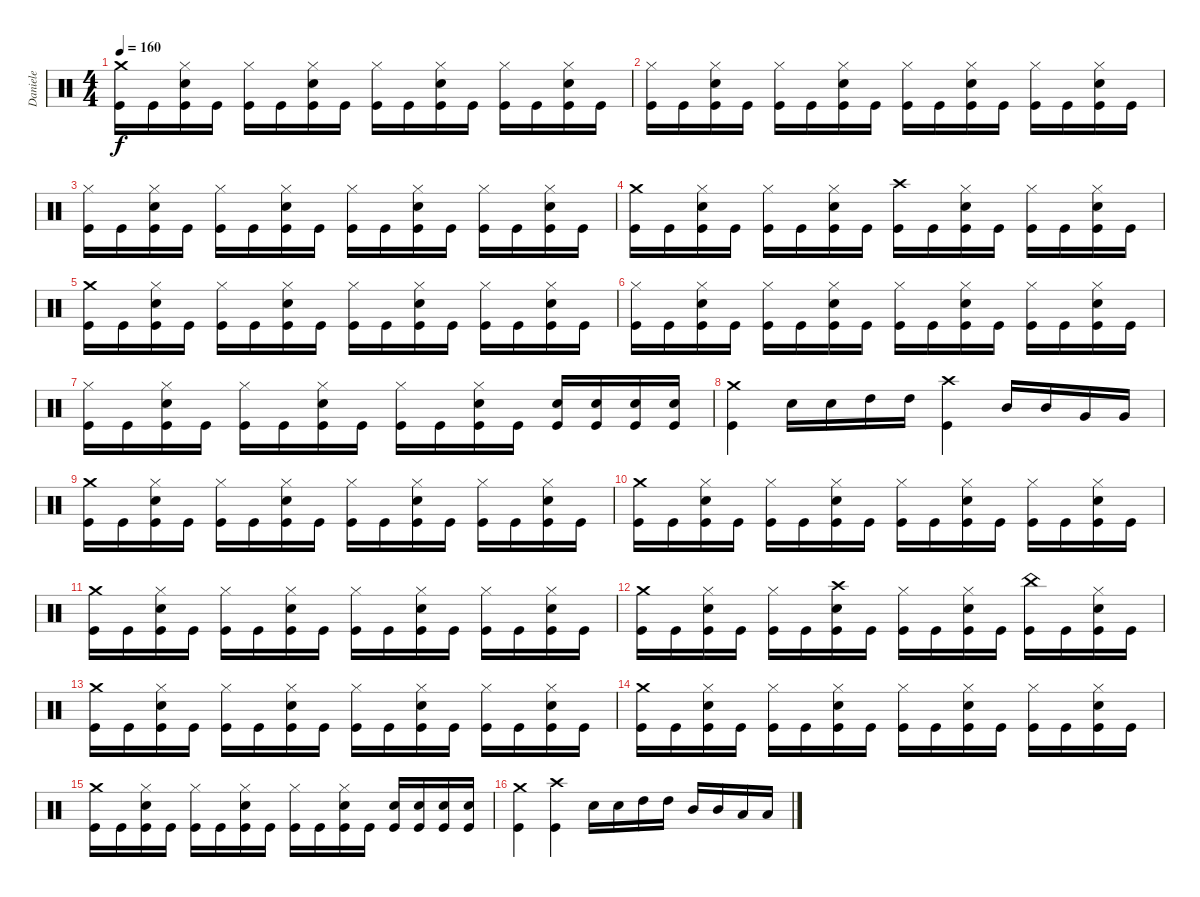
\track ("Daniele" "Daniele") {instrument percussion}
\staff {score}
\articulation defaults
\ts (4 4)
\tempo 160
\clef neutral
\ks c
("Kick (hit)" "Crash medium (hit)").16{dy f} "Kick (hit)".16 ("Kick (hit)" "Electric Snare (hit)" "Hi-Hat (closed)").16 "Kick (hit)".16 ("Kick (hit)" "Hi-Hat (closed)").16 "Kick (hit)".16 ("Kick (hit)" "Electric Snare (hit)" "Hi-Hat (closed)").16 "Kick (hit)".16 ("Kick (hit)" "Hi-Hat (closed)").16 "Kick (hit)".16 ("Kick (hit)" "Electric Snare (hit)" "Hi-Hat (closed)").16 "Kick (hit)".16 ("Kick (hit)" "Hi-Hat (closed)").16 "Kick (hit)".16 ("Kick (hit)" "Electric Snare (hit)" "Hi-Hat (closed)").16 "Kick (hit)".16 |
("Kick (hit)" "Hi-Hat (closed)").16 "Kick (hit)".16 ("Kick (hit)" "Electric Snare (hit)" "Hi-Hat (closed)").16 "Kick (hit)".16 ("Kick (hit)" "Hi-Hat (closed)").16 "Kick (hit)".16 ("Kick (hit)" "Electric Snare (hit)" "Hi-Hat (closed)").16 "Kick (hit)".16 ("Kick (hit)" "Hi-Hat (closed)").16 "Kick (hit)".16 ("Kick (hit)" "Electric Snare (hit)" "Hi-Hat (closed)").16 "Kick (hit)".16 ("Kick (hit)" "Hi-Hat (closed)").16 "Kick (hit)".16 ("Kick (hit)" "Electric Snare (hit)" "Hi-Hat (closed)").16 "Kick (hit)".16 |
("Kick (hit)" "Hi-Hat (closed)").16 "Kick (hit)".16 ("Kick (hit)" "Electric Snare (hit)" "Hi-Hat (closed)").16 "Kick (hit)".16 ("Kick (hit)" "Hi-Hat (closed)").16 "Kick (hit)".16 ("Kick (hit)" "Electric Snare (hit)" "Hi-Hat (closed)").16 "Kick (hit)".16 ("Kick (hit)" "Hi-Hat (closed)").16 "Kick (hit)".16 ("Kick (hit)" "Electric Snare (hit)" "Hi-Hat (closed)").16 "Kick (hit)".16 ("Kick (hit)" "Hi-Hat (closed)").16 "Kick (hit)".16 ("Kick (hit)" "Electric Snare (hit)" "Hi-Hat (closed)").16 "Kick (hit)".16 |
("Kick (hit)" "Crash medium (hit)").16 "Kick (hit)".16 ("Kick (hit)" "Electric Snare (hit)" "Hi-Hat (closed)").16 "Kick (hit)".16 ("Kick (hit)" "Hi-Hat (closed)").16 "Kick (hit)".16 ("Kick (hit)" "Electric Snare (hit)" "Hi-Hat (closed)").16 "Kick (hit)".16 ("Kick (hit)" "Crash high (hit)").16 "Kick (hit)".16 ("Kick (hit)" "Electric Snare (hit)" "Hi-Hat (closed)").16 "Kick (hit)".16 ("Kick (hit)" "Hi-Hat (closed)").16 "Kick (hit)".16 ("Kick (hit)" "Electric Snare (hit)" "Hi-Hat (closed)").16 "Kick (hit)".16 |
("Kick (hit)" "Crash medium (hit)").16 "Kick (hit)".16 ("Kick (hit)" "Electric Snare (hit)" "Hi-Hat (closed)").16 "Kick (hit)".16 ("Kick (hit)" "Hi-Hat (closed)").16 "Kick (hit)".16 ("Kick (hit)" "Electric Snare (hit)" "Hi-Hat (closed)").16 "Kick (hit)".16 ("Kick (hit)" "Hi-Hat (closed)").16 "Kick (hit)".16 ("Kick (hit)" "Electric Snare (hit)" "Hi-Hat (closed)").16 "Kick (hit)".16 ("Kick (hit)" "Hi-Hat (closed)").16 "Kick (hit)".16 ("Kick (hit)" "Electric Snare (hit)" "Hi-Hat (closed)").16 "Kick (hit)".16 |
("Kick (hit)" "Hi-Hat (closed)").16 "Kick (hit)".16 ("Kick (hit)" "Electric Snare (hit)" "Hi-Hat (closed)").16 "Kick (hit)".16 ("Kick (hit)" "Hi-Hat (closed)").16 "Kick (hit)".16 ("Kick (hit)" "Electric Snare (hit)" "Hi-Hat (closed)").16 "Kick (hit)".16 ("Kick (hit)" "Hi-Hat (closed)").16 "Kick (hit)".16 ("Kick (hit)" "Electric Snare (hit)" "Hi-Hat (closed)").16 "Kick (hit)".16 ("Kick (hit)" "Hi-Hat (closed)").16 "Kick (hit)".16 ("Kick (hit)" "Electric Snare (hit)" "Hi-Hat (closed)").16 "Kick (hit)".16 |
("Kick (hit)" "Hi-Hat (closed)").16 "Kick (hit)".16 ("Kick (hit)" "Electric Snare (hit)" "Hi-Hat (closed)").16 "Kick (hit)".16 ("Kick (hit)" "Hi-Hat (closed)").16 "Kick (hit)".16 ("Kick (hit)" "Electric Snare (hit)" "Hi-Hat (closed)").16 "Kick (hit)".16 ("Kick (hit)" "Hi-Hat (closed)").16 "Kick (hit)".16 ("Kick (hit)" "Electric Snare (hit)" "Hi-Hat (closed)").16 "Kick (hit)".16 ("Kick (hit)" "Electric Snare (hit)").16 ("Kick (hit)" "Electric Snare (hit)").16 ("Kick (hit)" "Electric Snare (hit)").16 ("Kick (hit)" "Electric Snare (hit)").16 |
("Kick (hit)" "Crash medium (hit)").4 "Electric Snare (hit)".16 "Electric Snare (hit)".16 "High Tom (hit)".16 "High Tom (hit)".16 ("Kick (hit)" "Crash high (hit)").4 "Mid Tom (hit)".16 "Mid Tom (hit)".16 "Very Low Tom (hit)".16 "Very Low Tom (hit)".16 |
("Kick (hit)" "Crash medium (hit)").16 "Kick (hit)".16 ("Kick (hit)" "Electric Snare (hit)" "Hi-Hat (closed)").16 "Kick (hit)".16 ("Kick (hit)" "Hi-Hat (closed)").16 "Kick (hit)".16 ("Kick (hit)" "Electric Snare (hit)" "Hi-Hat (closed)").16 "Kick (hit)".16 ("Kick (hit)" "Hi-Hat (closed)").16 "Kick (hit)".16 ("Kick (hit)" "Electric Snare (hit)" "Hi-Hat (closed)").16 "Kick (hit)".16 ("Kick (hit)" "Hi-Hat (closed)").16 "Kick (hit)".16 ("Kick (hit)" "Electric Snare (hit)" "Hi-Hat (closed)").16 "Kick (hit)".16 |
("Kick (hit)" "Crash medium (hit)").16 "Kick (hit)".16 ("Kick (hit)" "Electric Snare (hit)" "Hi-Hat (closed)").16 "Kick (hit)".16 ("Kick (hit)" "Hi-Hat (closed)").16 "Kick (hit)".16 ("Kick (hit)" "Electric Snare (hit)" "Hi-Hat (closed)").16 "Kick (hit)".16 ("Kick (hit)" "Hi-Hat (closed)").16 "Kick (hit)".16 ("Kick (hit)" "Electric Snare (hit)" "Hi-Hat (closed)").16 "Kick (hit)".16 ("Kick (hit)" "Hi-Hat (closed)").16 "Kick (hit)".16 ("Kick (hit)" "Electric Snare (hit)" "Hi-Hat (closed)").16 "Kick (hit)".16 |
("Kick (hit)" "Crash medium (hit)").16 "Kick (hit)".16 ("Kick (hit)" "Electric Snare (hit)" "Hi-Hat (closed)").16 "Kick (hit)".16 ("Kick (hit)" "Hi-Hat (closed)").16 "Kick (hit)".16 ("Kick (hit)" "Electric Snare (hit)" "Hi-Hat (closed)").16 "Kick (hit)".16 ("Kick (hit)" "Hi-Hat (closed)").16 "Kick (hit)".16 ("Kick (hit)" "Electric Snare (hit)" "Hi-Hat (closed)").16 "Kick (hit)".16 ("Kick (hit)" "Hi-Hat (closed)").16 "Kick (hit)".16 ("Kick (hit)" "Electric Snare (hit)" "Hi-Hat (closed)").16 "Kick (hit)".16 |
("Kick (hit)" "Crash medium (hit)").16 "Kick (hit)".16 ("Kick (hit)" "Electric Snare (hit)" "Hi-Hat (closed)").16 "Kick (hit)".16 ("Kick (hit)" "Hi-Hat (closed)").16 "Kick (hit)".16 ("Kick (hit)" "Electric Snare (hit)" "Crash high (hit)").16 "Kick (hit)".16 ("Kick (hit)" "Hi-Hat (closed)").16 "Kick (hit)".16 ("Kick (hit)" "Electric Snare (hit)" "Hi-Hat (closed)").16 "Kick (hit)".16 ("Kick (hit)" "China (hit)").16 "Kick (hit)".16 ("Kick (hit)" "Electric Snare (hit)" "Hi-Hat (closed)").16 "Kick (hit)".16 |
("Kick (hit)" "Crash medium (hit)").16 "Kick (hit)".16 ("Kick (hit)" "Electric Snare (hit)" "Hi-Hat (closed)").16 "Kick (hit)".16 ("Kick (hit)" "Hi-Hat (closed)").16 "Kick (hit)".16 ("Kick (hit)" "Electric Snare (hit)" "Hi-Hat (closed)").16 "Kick (hit)".16 ("Kick (hit)" "Hi-Hat (closed)").16 "Kick (hit)".16 ("Kick (hit)" "Electric Snare (hit)" "Hi-Hat (closed)").16 "Kick (hit)".16 ("Kick (hit)" "Hi-Hat (closed)").16 "Kick (hit)".16 ("Kick (hit)" "Electric Snare (hit)" "Hi-Hat (closed)").16 "Kick (hit)".16 |
("Kick (hit)" "Crash medium (hit)").16 "Kick (hit)".16 ("Kick (hit)" "Electric Snare (hit)" "Hi-Hat (closed)").16 "Kick (hit)".16 ("Kick (hit)" "Hi-Hat (closed)").16 "Kick (hit)".16 ("Kick (hit)" "Electric Snare (hit)" "Hi-Hat (closed)").16 "Kick (hit)".16 ("Kick (hit)" "Hi-Hat (closed)").16 "Kick (hit)".16 ("Kick (hit)" "Electric Snare (hit)" "Hi-Hat (closed)").16 "Kick (hit)".16 ("Kick (hit)" "Hi-Hat (closed)").16 "Kick (hit)".16 ("Kick (hit)" "Electric Snare (hit)" "Hi-Hat (closed)").16 "Kick (hit)".16 |
("Kick (hit)" "Crash medium (hit)").16 "Kick (hit)".16 ("Kick (hit)" "Electric Snare (hit)" "Hi-Hat (closed)").16 "Kick (hit)".16 ("Kick (hit)" "Hi-Hat (closed)").16 "Kick (hit)".16 ("Kick (hit)" "Electric Snare (hit)" "Hi-Hat (closed)").16 "Kick (hit)".16 ("Kick (hit)" "Hi-Hat (closed)").16 "Kick (hit)".16 ("Kick (hit)" "Electric Snare (hit)" "Hi-Hat (closed)").16 "Kick (hit)".16 ("Kick (hit)" "Electric Snare (hit)").16 ("Kick (hit)" "Electric Snare (hit)").16 ("Kick (hit)" "Electric Snare (hit)").16 ("Kick (hit)" "Electric Snare (hit)").16 |
("Kick (hit)" "Crash medium (hit)").4 ("Kick (hit)" "Crash high (hit)").4 "Electric Snare (hit)".16 "Electric Snare (hit)".16 "High Tom (hit)".16 "High Tom (hit)".16 "Mid Tom (hit)".16 "Mid Tom (hit)".16 "Low Tom (hit)".16 "Low Tom (hit)".16
